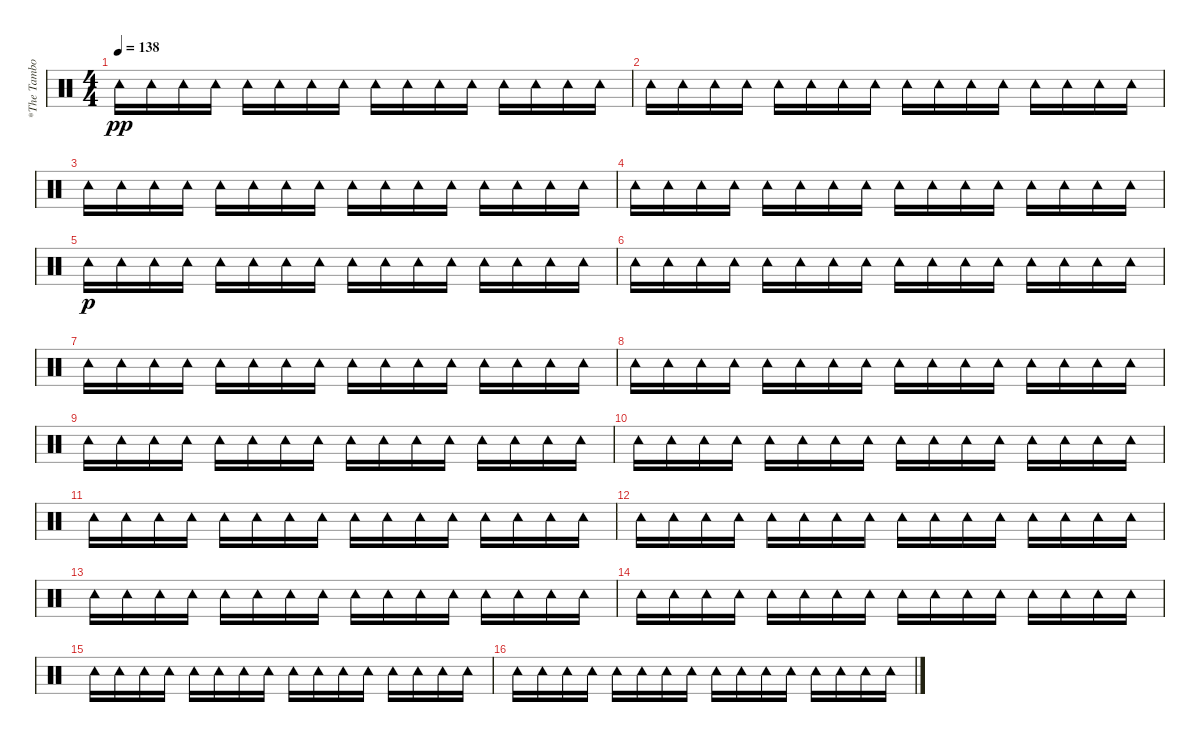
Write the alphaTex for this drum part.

\track ("*The Tambourine" "*The Tambo") {instrument percussion}
\staff {score}
\articulation defaults
\ts (4 4)
\tempo 138
\clef neutral
\ks c "Tambourine (hit)".16{dy pp} "Tambourine (hit)".16 "Tambourine (hit)".16 "Tambourine (hit)".16 "Tambourine (hit)".16 "Tambourine (hit)".16 "Tambourine (hit)".16 "Tambourine (hit)".16 "Tambourine (hit)".16 "Tambourine (hit)".16 "Tambourine (hit)".16 "Tambourine (hit)".16 "Tambourine (hit)".16 "Tambourine (hit)".16 "Tambourine (hit)".16 "Tambourine (hit)".16
|
"Tambourine (hit)".16 "Tambourine (hit)".16 "Tambourine (hit)".16 "Tambourine (hit)".16 "Tambourine (hit)".16 "Tambourine (hit)".16 "Tambourine (hit)".16 "Tambourine (hit)".16 "Tambourine (hit)".16 "Tambourine (hit)".16 "Tambourine (hit)".16 "Tambourine (hit)".16 "Tambourine (hit)".16 "Tambourine (hit)".16 "Tambourine (hit)".16 "Tambourine (hit)".16 |
"Tambourine (hit)".16 "Tambourine (hit)".16 "Tambourine (hit)".16 "Tambourine (hit)".16 "Tambourine (hit)".16 "Tambourine (hit)".16 "Tambourine (hit)".16 "Tambourine (hit)".16 "Tambourine (hit)".16 "Tambourine (hit)".16 "Tambourine (hit)".16 "Tambourine (hit)".16 "Tambourine (hit)".16 "Tambourine (hit)".16 "Tambourine (hit)".16 "Tambourine (hit)".16 |
"Tambourine (hit)".16 "Tambourine (hit)".16 "Tambourine (hit)".16 "Tambourine (hit)".16 "Tambourine (hit)".16 "Tambourine (hit)".16 "Tambourine (hit)".16 "Tambourine (hit)".16 "Tambourine (hit)".16 "Tambourine (hit)".16 "Tambourine (hit)".16 "Tambourine (hit)".16 "Tambourine (hit)".16 "Tambourine (hit)".16 "Tambourine (hit)".16 "Tambourine (hit)".16 |
"Tambourine (hit)".16{dy p} "Tambourine (hit)".16 "Tambourine (hit)".16 "Tambourine (hit)".16 "Tambourine (hit)".16 "Tambourine (hit)".16 "Tambourine (hit)".16 "Tambourine (hit)".16 "Tambourine (hit)".16 "Tambourine (hit)".16 "Tambourine (hit)".16 "Tambourine (hit)".16 "Tambourine (hit)".16 "Tambourine (hit)".16 "Tambourine (hit)".16 "Tambourine (hit)".16 |
"Tambourine (hit)".16 "Tambourine (hit)".16 "Tambourine (hit)".16 "Tambourine (hit)".16 "Tambourine (hit)".16 "Tambourine (hit)".16 "Tambourine (hit)".16 "Tambourine (hit)".16 "Tambourine (hit)".16 "Tambourine (hit)".16 "Tambourine (hit)".16 "Tambourine (hit)".16 "Tambourine (hit)".16 "Tambourine (hit)".16 "Tambourine (hit)".16 "Tambourine (hit)".16 |
"Tambourine (hit)".16 "Tambourine (hit)".16 "Tambourine (hit)".16 "Tambourine (hit)".16 "Tambourine (hit)".16 "Tambourine (hit)".16 "Tambourine (hit)".16 "Tambourine (hit)".16 "Tambourine (hit)".16 "Tambourine (hit)".16 "Tambourine (hit)".16 "Tambourine (hit)".16 "Tambourine (hit)".16 "Tambourine (hit)".16 "Tambourine (hit)".16 "Tambourine (hit)".16 |
"Tambourine (hit)".16 "Tambourine (hit)".16 "Tambourine (hit)".16 "Tambourine (hit)".16 "Tambourine (hit)".16 "Tambourine (hit)".16 "Tambourine (hit)".16 "Tambourine (hit)".16 "Tambourine (hit)".16 "Tambourine (hit)".16 "Tambourine (hit)".16 "Tambourine (hit)".16 "Tambourine (hit)".16 "Tambourine (hit)".16 "Tambourine (hit)".16 "Tambourine (hit)".16 |
"Tambourine (hit)".16 "Tambourine (hit)".16 "Tambourine (hit)".16 "Tambourine (hit)".16 "Tambourine (hit)".16 "Tambourine (hit)".16 "Tambourine (hit)".16 "Tambourine (hit)".16 "Tambourine (hit)".16 "Tambourine (hit)".16 "Tambourine (hit)".16 "Tambourine (hit)".16 "Tambourine (hit)".16 "Tambourine (hit)".16 "Tambourine (hit)".16 "Tambourine (hit)".16 |
"Tambourine (hit)".16 "Tambourine (hit)".16 "Tambourine (hit)".16 "Tambourine (hit)".16 "Tambourine (hit)".16 "Tambourine (hit)".16 "Tambourine (hit)".16 "Tambourine (hit)".16 "Tambourine (hit)".16 "Tambourine (hit)".16 "Tambourine (hit)".16 "Tambourine (hit)".16 "Tambourine (hit)".16 "Tambourine (hit)".16 "Tambourine (hit)".16 "Tambourine (hit)".16 |
"Tambourine (hit)".16 "Tambourine (hit)".16 "Tambourine (hit)".16 "Tambourine (hit)".16 "Tambourine (hit)".16 "Tambourine (hit)".16 "Tambourine (hit)".16 "Tambourine (hit)".16 "Tambourine (hit)".16 "Tambourine (hit)".16 "Tambourine (hit)".16 "Tambourine (hit)".16 "Tambourine (hit)".16 "Tambourine (hit)".16 "Tambourine (hit)".16 "Tambourine (hit)".16 |
"Tambourine (hit)".16 "Tambourine (hit)".16 "Tambourine (hit)".16 "Tambourine (hit)".16 "Tambourine (hit)".16 "Tambourine (hit)".16 "Tambourine (hit)".16 "Tambourine (hit)".16 "Tambourine (hit)".16 "Tambourine (hit)".16 "Tambourine (hit)".16 "Tambourine (hit)".16 "Tambourine (hit)".16 "Tambourine (hit)".16 "Tambourine (hit)".16 "Tambourine (hit)".16 |
"Tambourine (hit)".16 "Tambourine (hit)".16 "Tambourine (hit)".16 "Tambourine (hit)".16 "Tambourine (hit)".16 "Tambourine (hit)".16 "Tambourine (hit)".16 "Tambourine (hit)".16 "Tambourine (hit)".16 "Tambourine (hit)".16 "Tambourine (hit)".16 "Tambourine (hit)".16 "Tambourine (hit)".16 "Tambourine (hit)".16 "Tambourine (hit)".16 "Tambourine (hit)".16 |
"Tambourine (hit)".16 "Tambourine (hit)".16 "Tambourine (hit)".16 "Tambourine (hit)".16 "Tambourine (hit)".16 "Tambourine (hit)".16 "Tambourine (hit)".16 "Tambourine (hit)".16 "Tambourine (hit)".16 "Tambourine (hit)".16 "Tambourine (hit)".16 "Tambourine (hit)".16 "Tambourine (hit)".16 "Tambourine (hit)".16 "Tambourine (hit)".16 "Tambourine (hit)".16 |
"Tambourine (hit)".16 "Tambourine (hit)".16 "Tambourine (hit)".16 "Tambourine (hit)".16 "Tambourine (hit)".16 "Tambourine (hit)".16 "Tambourine (hit)".16 "Tambourine (hit)".16 "Tambourine (hit)".16 "Tambourine (hit)".16 "Tambourine (hit)".16 "Tambourine (hit)".16 "Tambourine (hit)".16 "Tambourine (hit)".16 "Tambourine (hit)".16 "Tambourine (hit)".16 |
"Tambourine (hit)".16 "Tambourine (hit)".16 "Tambourine (hit)".16 "Tambourine (hit)".16 "Tambourine (hit)".16 "Tambourine (hit)".16 "Tambourine (hit)".16 "Tambourine (hit)".16 "Tambourine (hit)".16 "Tambourine (hit)".16 "Tambourine (hit)".16 "Tambourine (hit)".16 "Tambourine (hit)".16 "Tambourine (hit)".16 "Tambourine (hit)".16 "Tambourine (hit)".16
